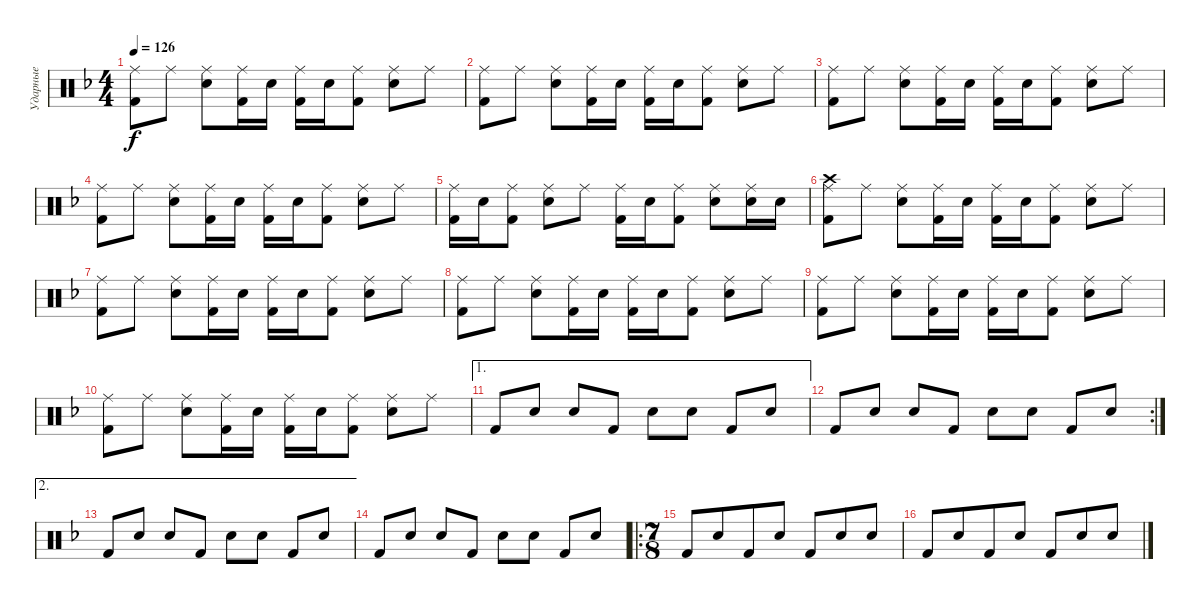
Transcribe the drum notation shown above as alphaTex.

\track ("Ударные" "Ударные") {instrument percussion}
\staff {score}
\articulation defaults
\ts (4 4)
\tempo 126
\clef neutral
\ks dminor
("Ride (middle)" "Kick (hit) 2").8{dy f} "Ride (middle)".8 ("Ride (middle)" "Electric Snare (hit)").8 ("Ride (middle)" "Kick (hit) 2").16 "Electric Snare (hit)".16 ("Ride (middle)" "Kick (hit) 2").16 "Electric Snare (hit)".16 ("Ride (middle)" "Kick (hit) 2").8 ("Ride (middle)" "Electric Snare (hit)").8 "Ride (middle)".8 |
("Ride (middle)" "Kick (hit) 2").8 "Ride (middle)".8 ("Ride (middle)" "Electric Snare (hit)").8 ("Ride (middle)" "Kick (hit) 2").16 "Electric Snare (hit)".16 ("Ride (middle)" "Kick (hit) 2").16 "Electric Snare (hit)".16 ("Ride (middle)" "Kick (hit) 2").8 ("Ride (middle)" "Electric Snare (hit)").8 "Ride (middle)".8 |
("Ride (middle)" "Kick (hit) 2").8 "Ride (middle)".8 ("Ride (middle)" "Electric Snare (hit)").8 ("Ride (middle)" "Kick (hit) 2").16 "Electric Snare (hit)".16 ("Ride (middle)" "Kick (hit) 2").16 "Electric Snare (hit)".16 ("Ride (middle)" "Kick (hit) 2").8 ("Ride (middle)" "Electric Snare (hit)").8 "Ride (middle)".8 |
("Ride (middle)" "Kick (hit) 2").8 "Ride (middle)".8 ("Ride (middle)" "Electric Snare (hit)").8 ("Ride (middle)" "Kick (hit) 2").16 "Electric Snare (hit)".16 ("Ride (middle)" "Kick (hit) 2").16 "Electric Snare (hit)".16 ("Ride (middle)" "Kick (hit) 2").8 ("Ride (middle)" "Electric Snare (hit)").8 "Ride (middle)".8 |
("Ride (middle)" "Kick (hit) 2").16 "Electric Snare (hit)".16 ("Ride (middle)" "Kick (hit) 2").8 ("Ride (middle)" "Electric Snare (hit)").8 "Ride (middle)".8 ("Ride (middle)" "Kick (hit) 2").16 "Electric Snare (hit)".16 ("Ride (middle)" "Kick (hit) 2").8 ("Ride (middle)" "Electric Snare (hit)").8 ("Ride (middle)" "Electric Snare (hit)").16 "Electric Snare (hit)".16 |
("Ride (middle)" "Crash high (hit)" "Kick (hit) 2").8 "Ride (middle)".8 ("Ride (middle)" "Electric Snare (hit)").8 ("Ride (middle)" "Kick (hit) 2").16 "Electric Snare (hit)".16 ("Ride (middle)" "Kick (hit) 2").16 "Electric Snare (hit)".16 ("Ride (middle)" "Kick (hit) 2").8 ("Ride (middle)" "Electric Snare (hit)").8 "Ride (middle)".8 |
("Ride (middle)" "Kick (hit) 2").8 "Ride (middle)".8 ("Ride (middle)" "Electric Snare (hit)").8 ("Ride (middle)" "Kick (hit) 2").16 "Electric Snare (hit)".16 ("Ride (middle)" "Kick (hit) 2").16 "Electric Snare (hit)".16 ("Ride (middle)" "Kick (hit) 2").8 ("Ride (middle)" "Electric Snare (hit)").8 "Ride (middle)".8 |
("Ride (middle)" "Kick (hit) 2").8 "Ride (middle)".8 ("Ride (middle)" "Electric Snare (hit)").8 ("Ride (middle)" "Kick (hit) 2").16 "Electric Snare (hit)".16 ("Ride (middle)" "Kick (hit) 2").16 "Electric Snare (hit)".16 ("Ride (middle)" "Kick (hit) 2").8 ("Ride (middle)" "Electric Snare (hit)").8 "Ride (middle)".8 |
("Ride (middle)" "Kick (hit) 2").8 "Ride (middle)".8 ("Ride (middle)" "Electric Snare (hit)").8 ("Ride (middle)" "Kick (hit) 2").16 "Electric Snare (hit)".16 ("Ride (middle)" "Kick (hit) 2").16 "Electric Snare (hit)".16 ("Ride (middle)" "Kick (hit) 2").8 ("Ride (middle)" "Electric Snare (hit)").8 "Ride (middle)".8 |
("Ride (middle)" "Kick (hit) 2").8 "Ride (middle)".8 ("Ride (middle)" "Electric Snare (hit)").8 ("Ride (middle)" "Kick (hit) 2").16 "Electric Snare (hit)".16 ("Ride (middle)" "Kick (hit) 2").16 "Electric Snare (hit)".16 ("Ride (middle)" "Kick (hit) 2").8 ("Ride (middle)" "Electric Snare (hit)").8 "Ride (middle)".8 |
\ae 1 "Kick (hit) 2".8 "Electric Snare (hit)".8 "Electric Snare (hit)".8 "Kick (hit) 2".8 "Electric Snare (hit)".8 "Electric Snare (hit)".8 "Kick (hit) 2".8 "Electric Snare (hit)".8
|
\rc 2 "Kick (hit) 2".8 "Electric Snare (hit)".8 "Electric Snare (hit)".8 "Kick (hit) 2".8 "Electric Snare (hit)".8 "Electric Snare (hit)".8 "Kick (hit) 2".8 "Electric Snare (hit)".8
|
\ae 2 "Kick (hit) 2".8 "Electric Snare (hit)".8 "Electric Snare (hit)".8 "Kick (hit) 2".8 "Electric Snare (hit)".8 "Electric Snare (hit)".8 "Kick (hit) 2".8 "Electric Snare (hit)".8
|
"Kick (hit) 2".8 "Electric Snare (hit)".8 "Electric Snare (hit)".8 "Kick (hit) 2".8 "Electric Snare (hit)".8 "Electric Snare (hit)".8 "Kick (hit) 2".8 "Electric Snare (hit)".8 |
\ro
\ts (7 8)
"Kick (hit) 2".8 "Electric Snare (hit)".8 "Kick (hit) 2".8 "Electric Snare (hit)".8 "Kick (hit) 2".8 "Electric Snare (hit)".8 "Electric Snare (hit)".8 |
"Kick (hit) 2".8 "Electric Snare (hit)".8 "Kick (hit) 2".8 "Electric Snare (hit)".8 "Kick (hit) 2".8 "Electric Snare (hit)".8 "Electric Snare (hit)".8
